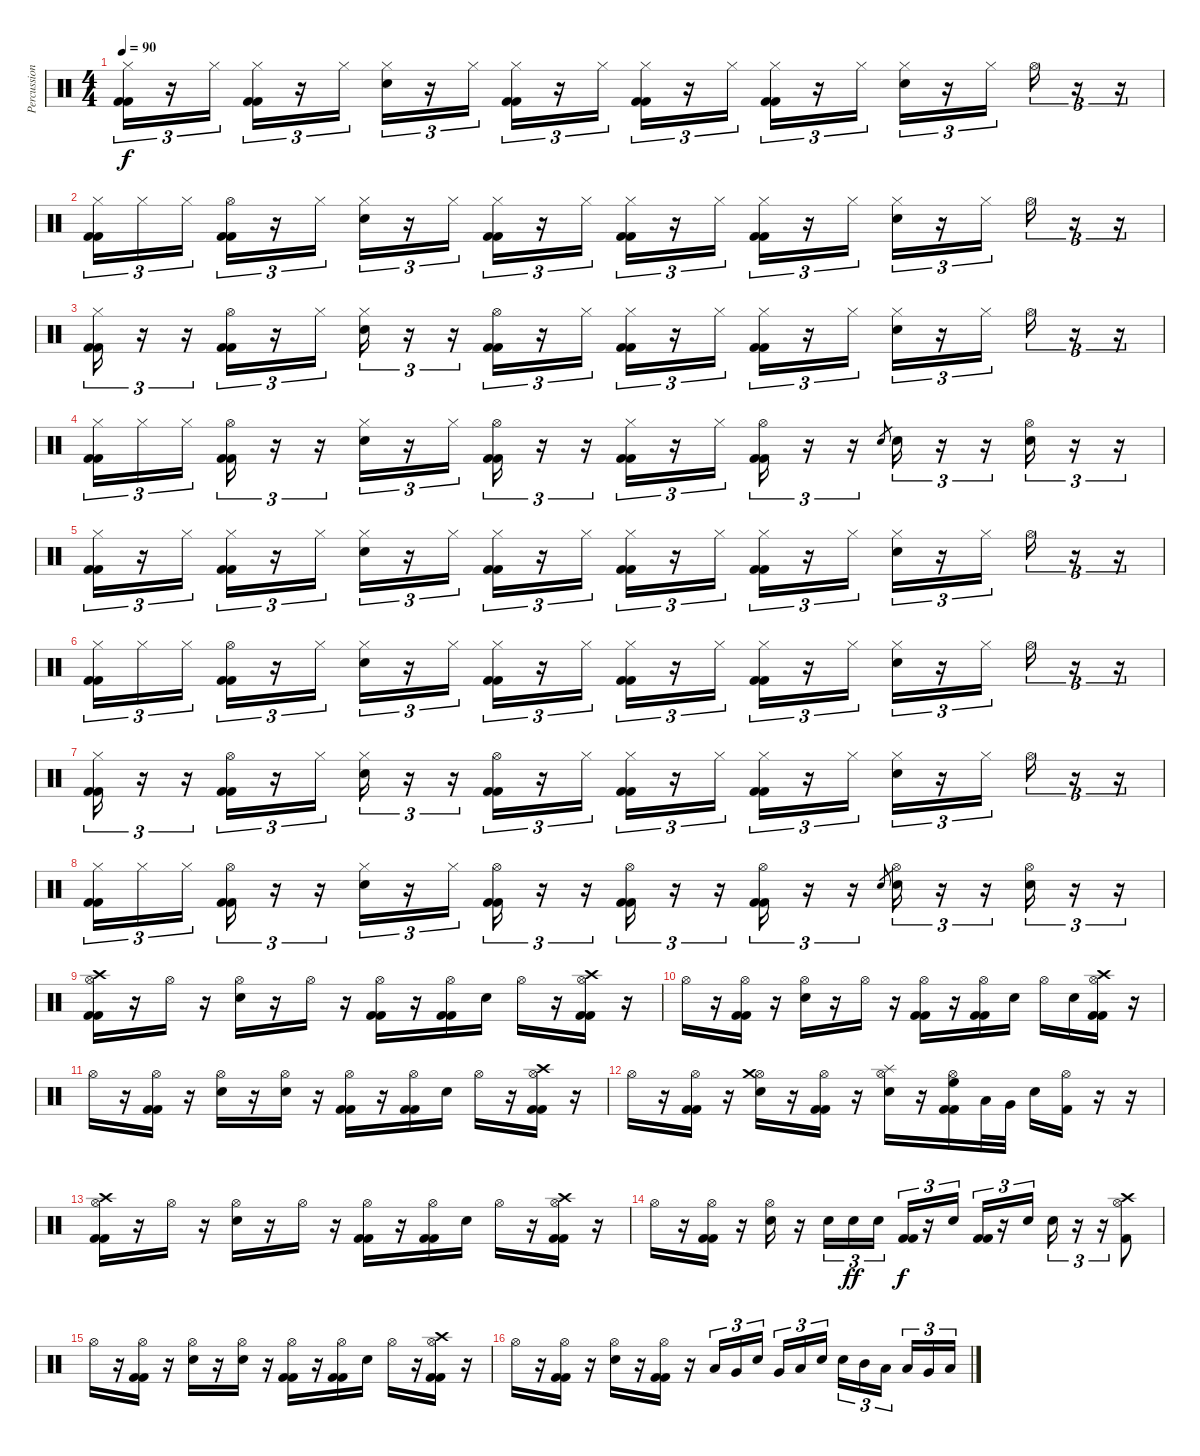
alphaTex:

\track ("Percussion" "Percussion") {instrument percussion}
\staff {score}
\articulation defaults
\ts (4 4)
\tempo 90
\clef neutral
\ks c
("Hi-Hat (closed)" "Kick (hit) 2" "Kick (hit) 2").16{tu (3 2) dy f} r.16{tu (3 2)} "Hi-Hat (closed)".16{tu (3 2)} ("Hi-Hat (closed)" "Kick (hit) 2" "Kick (hit) 2").16{tu (3 2)} r.16{tu (3 2)} "Hi-Hat (closed)".16{tu (3 2)} ("Hi-Hat (closed)" "Electric Snare (hit)").16{tu (3 2)} r.16{tu (3 2)} "Hi-Hat (closed)".16{tu (3 2)} ("Hi-Hat (closed)" "Kick (hit) 2" "Kick (hit) 2").16{tu (3 2)} r.16{tu (3 2)} "Hi-Hat (closed)".16{tu (3 2)} ("Hi-Hat (closed)" "Kick (hit) 2" "Kick (hit) 2").16{tu (3 2)} r.16{tu (3 2)} "Hi-Hat (closed)".16{tu (3 2)} ("Hi-Hat (closed)" "Kick (hit) 2" "Kick (hit) 2").16{tu (3 2)} r.16{tu (3 2)} "Hi-Hat (closed)".16{tu (3 2)} ("Hi-Hat (closed)" "Electric Snare (hit)").16{tu (3 2)} r.16{tu (3 2)} "Hi-Hat (closed)".16{tu (3 2)} "Hi-Hat (open)".16{tu (3 2)} r.16{tu (3 2)} r.16{tu (3 2)} |
("Hi-Hat (closed)" "Kick (hit) 2" "Kick (hit) 2").16{tu (3 2)} "Hi-Hat (closed)".16{tu (3 2)} "Hi-Hat (closed)".16{tu (3 2)} ("Hi-Hat (open)" "Kick (hit) 2" "Kick (hit) 2").16{tu (3 2)} r.16{tu (3 2)} "Hi-Hat (closed)".16{tu (3 2)} ("Hi-Hat (closed)" "Electric Snare (hit)").16{tu (3 2)} r.16{tu (3 2)} "Hi-Hat (closed)".16{tu (3 2)} ("Hi-Hat (closed)" "Kick (hit) 2" "Kick (hit) 2").16{tu (3 2)} r.16{tu (3 2)} "Hi-Hat (closed)".16{tu (3 2)} ("Hi-Hat (closed)" "Kick (hit) 2" "Kick (hit) 2").16{tu (3 2)} r.16{tu (3 2)} "Hi-Hat (closed)".16{tu (3 2)} ("Hi-Hat (closed)" "Kick (hit) 2" "Kick (hit) 2").16{tu (3 2)} r.16{tu (3 2)} "Hi-Hat (closed)".16{tu (3 2)} ("Hi-Hat (closed)" "Electric Snare (hit)").16{tu (3 2)} r.16{tu (3 2)} "Hi-Hat (closed)".16{tu (3 2)} "Hi-Hat (open)".16{tu (3 2)} r.16{tu (3 2)} r.16{tu (3 2)} |
("Hi-Hat (closed)" "Kick (hit) 2" "Kick (hit) 2").16{tu (3 2)} r.16{tu (3 2)} r.16{tu (3 2)} ("Hi-Hat (open)" "Kick (hit) 2" "Kick (hit) 2").16{tu (3 2)} r.16{tu (3 2)} "Hi-Hat (closed)".16{tu (3 2)} ("Hi-Hat (closed)" "Electric Snare (hit)").16{tu (3 2)} r.16{tu (3 2)} r.16{tu (3 2)} ("Hi-Hat (open)" "Kick (hit) 2" "Kick (hit) 2").16{tu (3 2)} r.16{tu (3 2)} "Hi-Hat (closed)".16{tu (3 2)} ("Hi-Hat (closed)" "Kick (hit) 2" "Kick (hit) 2").16{tu (3 2)} r.16{tu (3 2)} "Hi-Hat (closed)".16{tu (3 2)} ("Hi-Hat (closed)" "Kick (hit) 2" "Kick (hit) 2").16{tu (3 2)} r.16{tu (3 2)} "Hi-Hat (closed)".16{tu (3 2)} ("Hi-Hat (closed)" "Electric Snare (hit)").16{tu (3 2)} r.16{tu (3 2)} "Hi-Hat (closed)".16{tu (3 2)} "Hi-Hat (open)".16{tu (3 2)} r.16{tu (3 2)} r.16{tu (3 2)} |
("Hi-Hat (closed)" "Kick (hit) 2" "Kick (hit) 2").16{tu (3 2)} "Hi-Hat (closed)".16{tu (3 2)} "Hi-Hat (closed)".16{tu (3 2)} ("Hi-Hat (open)" "Kick (hit) 2" "Kick (hit) 2").16{tu (3 2)} r.16{tu (3 2)} r.16{tu (3 2)} ("Hi-Hat (closed)" "Electric Snare (hit)").16{tu (3 2)} r.16{tu (3 2)} "Hi-Hat (closed)".16{tu (3 2)} ("Hi-Hat (open)" "Kick (hit) 2" "Kick (hit) 2").16{tu (3 2)} r.16{tu (3 2)} r.16{tu (3 2)} ("Hi-Hat (closed)" "Kick (hit) 2" "Kick (hit) 2").16{tu (3 2)} r.16{tu (3 2)} "Hi-Hat (closed)".16{tu (3 2)} ("Hi-Hat (open)" "Kick (hit) 2" "Kick (hit) 2").16{tu (3 2)} r.16{tu (3 2)} r.16{tu (3 2)} "Electric Snare (hit)".8{gr} "Electric Snare (hit)".16{tu (3 2)} r.16{tu (3 2)} r.16{tu (3 2)} ("Hi-Hat (open)" "Electric Snare (hit)").16{tu (3 2)} r.16{tu (3 2)} r.16{tu (3 2)} |
("Hi-Hat (closed)" "Kick (hit) 2" "Kick (hit) 2").16{tu (3 2)} r.16{tu (3 2)} "Hi-Hat (closed)".16{tu (3 2)} ("Hi-Hat (closed)" "Kick (hit) 2" "Kick (hit) 2").16{tu (3 2)} r.16{tu (3 2)} "Hi-Hat (closed)".16{tu (3 2)} ("Hi-Hat (closed)" "Electric Snare (hit)").16{tu (3 2)} r.16{tu (3 2)} "Hi-Hat (closed)".16{tu (3 2)} ("Hi-Hat (closed)" "Kick (hit) 2" "Kick (hit) 2").16{tu (3 2)} r.16{tu (3 2)} "Hi-Hat (closed)".16{tu (3 2)} ("Hi-Hat (closed)" "Kick (hit) 2" "Kick (hit) 2").16{tu (3 2)} r.16{tu (3 2)} "Hi-Hat (closed)".16{tu (3 2)} ("Hi-Hat (closed)" "Kick (hit) 2" "Kick (hit) 2").16{tu (3 2)} r.16{tu (3 2)} "Hi-Hat (closed)".16{tu (3 2)} ("Hi-Hat (closed)" "Electric Snare (hit)").16{tu (3 2)} r.16{tu (3 2)} "Hi-Hat (closed)".16{tu (3 2)} "Hi-Hat (open)".16{tu (3 2)} r.16{tu (3 2)} r.16{tu (3 2)} |
("Hi-Hat (closed)" "Kick (hit) 2" "Kick (hit) 2").16{tu (3 2)} "Hi-Hat (closed)".16{tu (3 2)} "Hi-Hat (closed)".16{tu (3 2)} ("Hi-Hat (open)" "Kick (hit) 2" "Kick (hit) 2").16{tu (3 2)} r.16{tu (3 2)} "Hi-Hat (closed)".16{tu (3 2)} ("Hi-Hat (closed)" "Electric Snare (hit)").16{tu (3 2)} r.16{tu (3 2)} "Hi-Hat (closed)".16{tu (3 2)} ("Hi-Hat (closed)" "Kick (hit) 2" "Kick (hit) 2").16{tu (3 2)} r.16{tu (3 2)} "Hi-Hat (closed)".16{tu (3 2)} ("Hi-Hat (closed)" "Kick (hit) 2" "Kick (hit) 2").16{tu (3 2)} r.16{tu (3 2)} "Hi-Hat (closed)".16{tu (3 2)} ("Hi-Hat (closed)" "Kick (hit) 2" "Kick (hit) 2").16{tu (3 2)} r.16{tu (3 2)} "Hi-Hat (closed)".16{tu (3 2)} ("Hi-Hat (closed)" "Electric Snare (hit)").16{tu (3 2)} r.16{tu (3 2)} "Hi-Hat (closed)".16{tu (3 2)} "Hi-Hat (open)".16{tu (3 2)} r.16{tu (3 2)} r.16{tu (3 2)} |
("Hi-Hat (closed)" "Kick (hit) 2" "Kick (hit) 2").16{tu (3 2)} r.16{tu (3 2)} r.16{tu (3 2)} ("Hi-Hat (open)" "Kick (hit) 2" "Kick (hit) 2").16{tu (3 2)} r.16{tu (3 2)} "Hi-Hat (closed)".16{tu (3 2)} ("Hi-Hat (closed)" "Electric Snare (hit)").16{tu (3 2)} r.16{tu (3 2)} r.16{tu (3 2)} ("Hi-Hat (open)" "Kick (hit) 2" "Kick (hit) 2").16{tu (3 2)} r.16{tu (3 2)} "Hi-Hat (closed)".16{tu (3 2)} ("Hi-Hat (closed)" "Kick (hit) 2" "Kick (hit) 2").16{tu (3 2)} r.16{tu (3 2)} "Hi-Hat (closed)".16{tu (3 2)} ("Hi-Hat (closed)" "Kick (hit) 2" "Kick (hit) 2").16{tu (3 2)} r.16{tu (3 2)} "Hi-Hat (closed)".16{tu (3 2)} ("Hi-Hat (closed)" "Electric Snare (hit)").16{tu (3 2)} r.16{tu (3 2)} "Hi-Hat (closed)".16{tu (3 2)} "Hi-Hat (open)".16{tu (3 2)} r.16{tu (3 2)} r.16{tu (3 2)} |
("Hi-Hat (closed)" "Kick (hit) 2" "Kick (hit) 2").16{tu (3 2)} "Hi-Hat (closed)".16{tu (3 2)} "Hi-Hat (closed)".16{tu (3 2)} ("Hi-Hat (open)" "Kick (hit) 2" "Kick (hit) 2").16{tu (3 2)} r.16{tu (3 2)} r.16{tu (3 2)} ("Hi-Hat (closed)" "Electric Snare (hit)").16{tu (3 2)} r.16{tu (3 2)} "Hi-Hat (closed)".16{tu (3 2)} ("Hi-Hat (open)" "Kick (hit) 2" "Kick (hit) 2").16{tu (3 2)} r.16{tu (3 2)} r.16{tu (3 2)} ("Hi-Hat (open)" "Kick (hit) 2" "Kick (hit) 2").16{tu (3 2)} r.16{tu (3 2)} r.16{tu (3 2)} ("Hi-Hat (open)" "Kick (hit) 2" "Kick (hit) 2").16{tu (3 2)} r.16{tu (3 2)} r.16{tu (3 2)} "Electric Snare (hit)".8{gr} ("Hi-Hat (open)" "Electric Snare (hit)").16{tu (3 2)} r.16{tu (3 2)} r.16{tu (3 2)} ("Hi-Hat (open)" "Electric Snare (hit)").16{tu (3 2)} r.16{tu (3 2)} r.16{tu (3 2)} |
("Hi-Hat (open)" "Crash high (hit)" "Kick (hit) 2" "Kick (hit) 2").16 r.16 "Hi-Hat (open)".16 r.16 ("Hi-Hat (open)" "Electric Snare (hit)").16 r.16 "Hi-Hat (open)".16 r.16 ("Hi-Hat (open)" "Kick (hit) 2" "Kick (hit) 2").16 r.16 ("Hi-Hat (open)" "Kick (hit) 2" "Kick (hit) 2").16 "Electric Snare (hit)".16 "Hi-Hat (open)".16 r.16 ("Hi-Hat (open)" "Crash high (hit)" "Kick (hit) 2" "Kick (hit) 2").16 r.16 |
"Hi-Hat (open)".16 r.16 ("Hi-Hat (open)" "Kick (hit) 2" "Kick (hit) 2").16 r.16 ("Hi-Hat (open)" "Electric Snare (hit)").16 r.16 "Hi-Hat (open)".16 r.16 ("Hi-Hat (open)" "Kick (hit) 2" "Kick (hit) 2").16 r.16 ("Hi-Hat (open)" "Kick (hit) 2" "Kick (hit) 2").16 "Electric Snare (hit)".16 "Hi-Hat (open)".16 "Electric Snare (hit)".16 ("Hi-Hat (open)" "Crash high (hit)" "Kick (hit) 2" "Kick (hit) 2").16 r.16 |
"Hi-Hat (open)".16 r.16 ("Hi-Hat (open)" "Kick (hit) 2" "Kick (hit) 2").16 r.16 ("Hi-Hat (open)" "Electric Snare (hit)").16 r.16 ("Hi-Hat (open)" "Electric Snare (hit)").16 r.16 ("Hi-Hat (open)" "Kick (hit) 2" "Kick (hit) 2").16 r.16 ("Hi-Hat (open)" "Kick (hit) 2" "Kick (hit) 2").16 "Electric Snare (hit)".16 "Hi-Hat (open)".16 r.16 ("Hi-Hat (open)" "Crash high (hit)" "Kick (hit) 2" "Kick (hit) 2").16 r.16 |
"Hi-Hat (open)".16 r.16 ("Hi-Hat (open)" "Kick (hit) 2" "Kick (hit) 2").16 r.16 ("Hi-Hat (open)" "Crash medium (hit)" "Electric Snare (hit)").16 r.16 ("Hi-Hat (open)" "Kick (hit) 2" "Kick (hit) 2").16 r.16 ("Hi-Hat (open)" "Splash (hit)" "Electric Snare (hit)").16 r.16 ("Hi-Hat (open)" "High Floor Tom (hit)" "Kick (hit) 2" "Kick (hit) 2").16 "Low Tom (hit)".32 "Very Low Tom (hit)".32 "Electric Snare (hit)".16 ("Hi-Hat (open)" "Kick (hit) 2").16 r.16 r.16 |
("Hi-Hat (open)" "Crash high (hit)" "Kick (hit) 2" "Kick (hit) 2").16 r.16 "Hi-Hat (open)".16 r.16 ("Hi-Hat (open)" "Electric Snare (hit)").16 r.16 "Hi-Hat (open)".16 r.16 ("Hi-Hat (open)" "Kick (hit) 2" "Kick (hit) 2").16 r.16 ("Hi-Hat (open)" "Kick (hit) 2" "Kick (hit) 2").16 "Electric Snare (hit)".16 "Hi-Hat (open)".16 r.16 ("Hi-Hat (open)" "Crash high (hit)" "Kick (hit) 2" "Kick (hit) 2").16 r.16 |
"Hi-Hat (open)".16 r.16 ("Hi-Hat (open)" "Kick (hit) 2" "Kick (hit) 2").16 r.16 ("Hi-Hat (open)" "Electric Snare (hit)").16 r.16 "Electric Snare (hit)".16{tu (3 2)} "Electric Snare (hit)".16{tu (3 2) dy ff} "Electric Snare (hit)".16{tu (3 2)} ("Kick (hit) 2" "Kick (hit) 2").16{tu (3 2) dy f} r.16{tu (3 2)} "Electric Snare (hit)".16{tu (3 2)} ("Kick (hit) 2" "Kick (hit) 2").16{tu (3 2)} r.16{tu (3 2)} "Electric Snare (hit)".16{tu (3 2)} "Electric Snare (hit)".16{tu (3 2)} r.16{tu (3 2)} r.16{tu (3 2)} ("Hi-Hat (open)" "Crash high (hit)" "Kick (hit) 2").8 |
"Hi-Hat (open)".16 r.16 ("Hi-Hat (open)" "Kick (hit) 2" "Kick (hit) 2").16 r.16 ("Hi-Hat (open)" "Electric Snare (hit)").16 r.16 ("Hi-Hat (open)" "Electric Snare (hit)").16 r.16 ("Hi-Hat (open)" "Kick (hit) 2" "Kick (hit) 2").16 r.16 ("Hi-Hat (open)" "Kick (hit) 2" "Kick (hit) 2").16 "Electric Snare (hit)".16 "Hi-Hat (open)".16 r.16 ("Hi-Hat (open)" "Crash high (hit)" "Kick (hit) 2" "Kick (hit) 2").16 r.16 |
"Hi-Hat (open)".16 r.16 ("Hi-Hat (open)" "Kick (hit) 2" "Kick (hit) 2").16 r.16 ("Hi-Hat (open)" "Electric Snare (hit)").16 r.16 ("Hi-Hat (open)" "Kick (hit) 2" "Kick (hit) 2").16 r.16 "Low Tom (hit)".16{tu (3 2)} "Very Low Tom (hit)".16{tu (3 2)} "Electric Snare (hit)".16{tu (3 2)} "Very Low Tom (hit)".16{tu (3 2)} "Low Floor Tom (hit)".16{tu (3 2)} "Electric Snare (hit)".16{tu (3 2)} "Electric Snare (hit)".16{tu (3 2)} "Mid Tom (hit)".16{tu (3 2)} "Low Tom (hit)".16{tu (3 2)} "Low Tom (hit)".16{tu (3 2)} "Very Low Tom (hit)".16{tu (3 2)} "Low Floor Tom (hit)".16{tu (3 2)}
